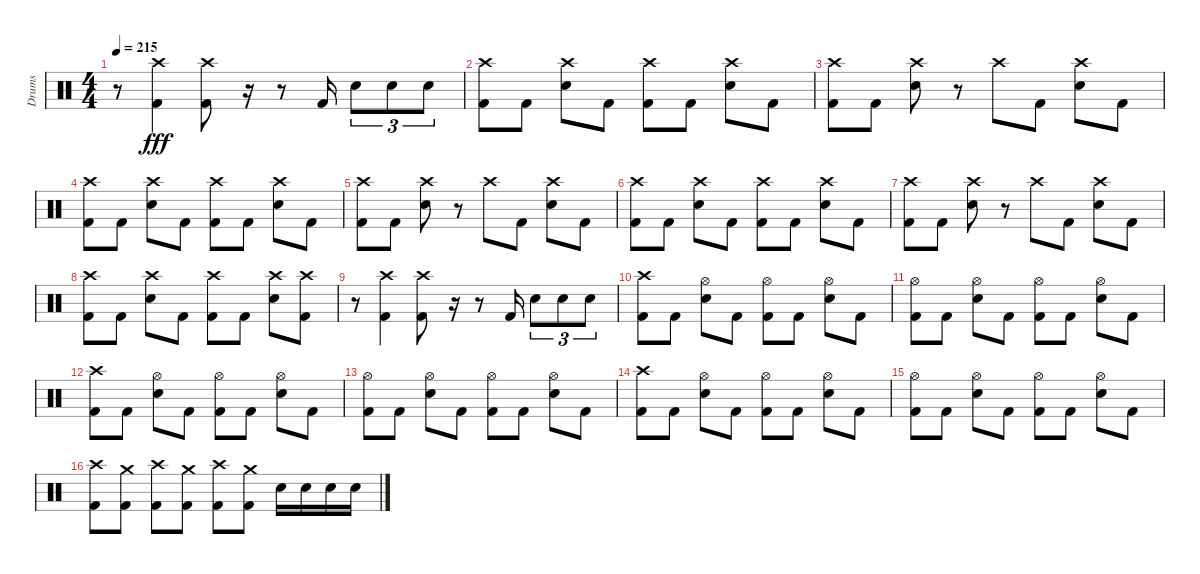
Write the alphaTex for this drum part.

\track ("Drums" "Drums") {instrument percussion}
\staff {score}
\articulation defaults
\ts (4 4)
\tempo 215
\clef neutral
\ks c
r.8{dy fff} ("Crash high (hit)" "Kick (hit) 2").4 ("Crash high (hit)" "Kick (hit) 2").8 r.16 r.8 "Kick (hit) 2".16 "Electric Snare (hit)".8{tu (3 2)} "Electric Snare (hit)".8{tu (3 2)} "Electric Snare (hit)".8{tu (3 2)} |
("Crash high (hit)" "Kick (hit) 2").8 "Kick (hit) 2".8 ("Crash high (hit)" "Electric Snare (hit)").8 "Kick (hit) 2".8 ("Crash high (hit)" "Kick (hit) 2").8 "Kick (hit) 2".8 ("Crash high (hit)" "Electric Snare (hit)").8 "Kick (hit) 2".8 |
("Crash high (hit)" "Kick (hit) 2").8 "Kick (hit) 2".8 ("Crash high (hit)" "Electric Snare (hit)").8 r.8 "Crash high (hit)".8 "Kick (hit) 2".8 ("Crash high (hit)" "Electric Snare (hit)").8 "Kick (hit) 2".8 |
("Crash high (hit)" "Kick (hit) 2").8 "Kick (hit) 2".8 ("Crash high (hit)" "Electric Snare (hit)").8 "Kick (hit) 2".8 ("Crash high (hit)" "Kick (hit) 2").8 "Kick (hit) 2".8 ("Crash high (hit)" "Electric Snare (hit)").8 "Kick (hit) 2".8 |
("Crash high (hit)" "Kick (hit) 2").8 "Kick (hit) 2".8 ("Crash high (hit)" "Electric Snare (hit)").8 r.8 "Crash high (hit)".8 "Kick (hit) 2".8 ("Crash high (hit)" "Electric Snare (hit)").8 "Kick (hit) 2".8 |
("Crash high (hit)" "Kick (hit) 2").8 "Kick (hit) 2".8 ("Crash high (hit)" "Electric Snare (hit)").8 "Kick (hit) 2".8 ("Crash high (hit)" "Kick (hit) 2").8 "Kick (hit) 2".8 ("Crash high (hit)" "Electric Snare (hit)").8 "Kick (hit) 2".8 |
("Crash high (hit)" "Kick (hit) 2").8 "Kick (hit) 2".8 ("Crash high (hit)" "Electric Snare (hit)").8 r.8 "Crash high (hit)".8 "Kick (hit) 2".8 ("Crash high (hit)" "Electric Snare (hit)").8 "Kick (hit) 2".8 |
("Crash high (hit)" "Kick (hit) 2").8 "Kick (hit) 2".8 ("Crash high (hit)" "Electric Snare (hit)").8 "Kick (hit) 2".8 ("Crash high (hit)" "Kick (hit) 2").8 "Kick (hit) 2".8 ("Crash high (hit)" "Electric Snare (hit)").8 ("Crash high (hit)" "Kick (hit) 2").8 |
r.8 ("Crash high (hit)" "Kick (hit) 2").4 ("Crash high (hit)" "Kick (hit) 2").8 r.16 r.8 "Kick (hit) 2".16 "Electric Snare (hit)".8{tu (3 2)} "Electric Snare (hit)".8{tu (3 2)} "Electric Snare (hit)".8{tu (3 2)} |
("Crash high (hit)" "Kick (hit) 2").8 "Kick (hit) 2".8 ("Hi-Hat (open)" "Electric Snare (hit)").8 "Kick (hit) 2".8 ("Hi-Hat (open)" "Kick (hit) 2").8 "Kick (hit) 2".8 ("Hi-Hat (open)" "Electric Snare (hit)").8 "Kick (hit) 2".8 |
("Hi-Hat (open)" "Kick (hit) 2").8 "Kick (hit) 2".8 ("Hi-Hat (open)" "Electric Snare (hit)").8 "Kick (hit) 2".8 ("Hi-Hat (open)" "Kick (hit) 2").8 "Kick (hit) 2".8 ("Hi-Hat (open)" "Electric Snare (hit)").8 "Kick (hit) 2".8 |
("Crash high (hit)" "Kick (hit) 2").8 "Kick (hit) 2".8 ("Hi-Hat (open)" "Electric Snare (hit)").8 "Kick (hit) 2".8 ("Hi-Hat (open)" "Kick (hit) 2").8 "Kick (hit) 2".8 ("Hi-Hat (open)" "Electric Snare (hit)").8 "Kick (hit) 2".8 |
("Hi-Hat (open)" "Kick (hit) 2").8 "Kick (hit) 2".8 ("Hi-Hat (open)" "Electric Snare (hit)").8 "Kick (hit) 2".8 ("Hi-Hat (open)" "Kick (hit) 2").8 "Kick (hit) 2".8 ("Hi-Hat (open)" "Electric Snare (hit)").8 "Kick (hit) 2".8 |
("Crash high (hit)" "Kick (hit) 2").8 "Kick (hit) 2".8 ("Hi-Hat (open)" "Electric Snare (hit)").8 "Kick (hit) 2".8 ("Hi-Hat (open)" "Kick (hit) 2").8 "Kick (hit) 2".8 ("Hi-Hat (open)" "Electric Snare (hit)").8 "Kick (hit) 2".8 |
("Hi-Hat (open)" "Kick (hit) 2").8 "Kick (hit) 2".8 ("Hi-Hat (open)" "Electric Snare (hit)").8 "Kick (hit) 2".8 ("Hi-Hat (open)" "Kick (hit) 2").8 "Kick (hit) 2".8 ("Hi-Hat (open)" "Electric Snare (hit)").8 "Kick (hit) 2".8 |
("Crash high (hit)" "Kick (hit) 2").8 ("Crash medium (hit)" "Kick (hit) 2").8 ("Crash high (hit)" "Kick (hit) 2").8 ("Crash medium (hit)" "Kick (hit) 2").8 ("Crash high (hit)" "Kick (hit) 2").8 ("Crash medium (hit)" "Kick (hit) 2").8 "Electric Snare (hit)".16 "Electric Snare (hit)".16 "Electric Snare (hit)".16 "Electric Snare (hit)".16
